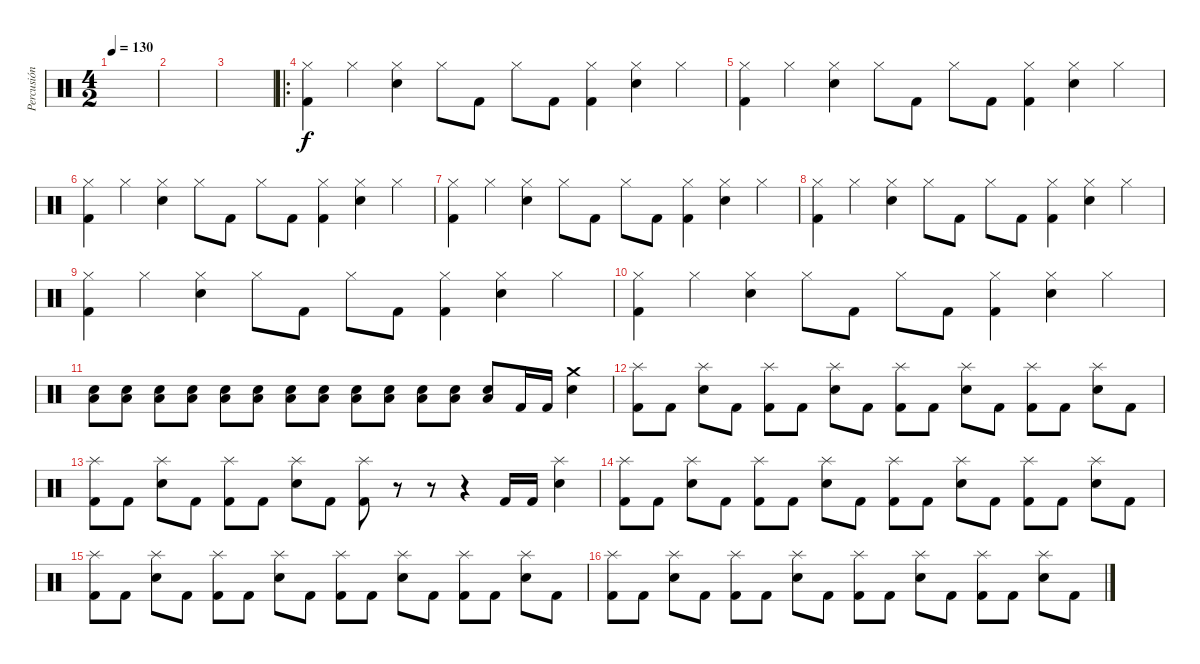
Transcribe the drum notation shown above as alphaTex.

\track ("Percusión" "Percusión") {instrument percussion}
\staff {score}
\articulation defaults
\ts (4 2)
\tempo 130
\clef neutral
\ks c
|
|
|
\ro
("Hi-Hat (closed)" "Kick (hit) 2").4 "Hi-Hat (closed)".4 ("Hi-Hat (closed)" "Snare (hit) 2").4 "Hi-Hat (closed)".8 "Kick (hit) 2".8 "Hi-Hat (closed)".8 "Kick (hit) 2".8 ("Hi-Hat (closed)" "Kick (hit) 2").4 ("Hi-Hat (closed)" "Snare (hit) 2").4 "Hi-Hat (closed)".4 |
("Hi-Hat (closed)" "Kick (hit) 2").4 "Hi-Hat (closed)".4 ("Hi-Hat (closed)" "Snare (hit) 2").4 "Hi-Hat (closed)".8 "Kick (hit) 2".8 "Hi-Hat (closed)".8 "Kick (hit) 2".8 ("Hi-Hat (closed)" "Kick (hit) 2").4 ("Hi-Hat (closed)" "Snare (hit) 2").4 "Hi-Hat (closed)".4 |
("Hi-Hat (closed)" "Kick (hit) 2").4 "Hi-Hat (closed)".4 ("Hi-Hat (closed)" "Snare (hit) 2").4 "Hi-Hat (closed)".8 "Kick (hit) 2".8 "Hi-Hat (closed)".8 "Kick (hit) 2".8 ("Hi-Hat (closed)" "Kick (hit) 2").4 ("Hi-Hat (closed)" "Snare (hit) 2").4 "Hi-Hat (closed)".4 |
("Hi-Hat (closed)" "Kick (hit) 2").4 "Hi-Hat (closed)".4 ("Hi-Hat (closed)" "Snare (hit) 2").4 "Hi-Hat (closed)".8 "Kick (hit) 2".8 "Hi-Hat (closed)".8 "Kick (hit) 2".8 ("Hi-Hat (closed)" "Kick (hit) 2").4 ("Hi-Hat (closed)" "Snare (hit) 2").4 "Hi-Hat (closed)".4 |
("Hi-Hat (closed)" "Kick (hit) 2").4 "Hi-Hat (closed)".4 ("Hi-Hat (closed)" "Snare (hit) 2").4 "Hi-Hat (closed)".8 "Kick (hit) 2".8 "Hi-Hat (closed)".8 "Kick (hit) 2".8 ("Hi-Hat (closed)" "Kick (hit) 2").4 ("Hi-Hat (closed)" "Snare (hit) 2").4 "Hi-Hat (closed)".4 |
("Hi-Hat (closed)" "Kick (hit) 2").4 "Hi-Hat (closed)".4 ("Hi-Hat (closed)" "Snare (hit) 2").4 "Hi-Hat (closed)".8 "Kick (hit) 2".8 "Hi-Hat (closed)".8 "Kick (hit) 2".8 ("Hi-Hat (closed)" "Kick (hit) 2").4 ("Hi-Hat (closed)" "Snare (hit) 2").4 "Hi-Hat (closed)".4 |
("Hi-Hat (closed)" "Kick (hit) 2").4 "Hi-Hat (closed)".4 ("Hi-Hat (closed)" "Snare (hit) 2").4 "Hi-Hat (closed)".8 "Kick (hit) 2".8 "Hi-Hat (closed)".8 "Kick (hit) 2".8 ("Hi-Hat (closed)" "Kick (hit) 2").4 ("Hi-Hat (closed)" "Snare (hit) 2").4 "Hi-Hat (closed)".4 |
("Low Floor Tom (hit)" "Snare (hit) 2").8 ("Low Floor Tom (hit)" "Snare (hit) 2").8 ("Low Floor Tom (hit)" "Snare (hit) 2").8 ("Low Floor Tom (hit)" "Snare (hit) 2").8 ("Low Floor Tom (hit)" "Snare (hit) 2").8 ("Low Floor Tom (hit)" "Snare (hit) 2").8 ("Low Floor Tom (hit)" "Snare (hit) 2").8 ("Low Floor Tom (hit)" "Snare (hit) 2").8 ("Low Floor Tom (hit)" "Snare (hit) 2").8 ("Low Floor Tom (hit)" "Snare (hit) 2").8 ("Low Floor Tom (hit)" "Snare (hit) 2").8 ("Low Floor Tom (hit)" "Snare (hit) 2").8 ("Low Floor Tom (hit)" "Snare (hit) 2").8 "Kick (hit) 2".16 "Kick (hit) 2".16 ("Crash medium (hit)" "Snare (hit) 2").4 |
("Splash (hit)" "Kick (hit) 2").8 "Kick (hit) 2".8 ("Splash (hit)" "Snare (hit) 2").8 "Kick (hit) 2".8 ("Splash (hit)" "Kick (hit) 2").8 "Kick (hit) 2".8 ("Splash (hit)" "Snare (hit) 2").8 "Kick (hit) 2".8 ("Splash (hit)" "Kick (hit) 2").8 "Kick (hit) 2".8 ("Splash (hit)" "Snare (hit) 2").8 "Kick (hit) 2".8 ("Splash (hit)" "Kick (hit) 2").8 "Kick (hit) 2".8 ("Splash (hit)" "Snare (hit) 2").8 "Kick (hit) 2".8 |
("Splash (hit)" "Kick (hit) 2").8 "Kick (hit) 2".8 ("Splash (hit)" "Snare (hit) 2").8 "Kick (hit) 2".8 ("Splash (hit)" "Kick (hit) 2").8 "Kick (hit) 2".8 ("Splash (hit)" "Snare (hit) 2").8 "Kick (hit) 2".8 ("Splash (hit)" "Kick (hit) 2").8 r.8 r.8 r.4 "Kick (hit) 2".16 "Kick (hit) 2".16 ("Splash (hit)" "Snare (hit) 2").4 |
("Splash (hit)" "Kick (hit) 2").8 "Kick (hit) 2".8 ("Splash (hit)" "Snare (hit) 2").8 "Kick (hit) 2".8 ("Splash (hit)" "Kick (hit) 2").8 "Kick (hit) 2".8 ("Splash (hit)" "Snare (hit) 2").8 "Kick (hit) 2".8 ("Splash (hit)" "Kick (hit) 2").8 "Kick (hit) 2".8 ("Splash (hit)" "Snare (hit) 2").8 "Kick (hit) 2".8 ("Splash (hit)" "Kick (hit) 2").8 "Kick (hit) 2".8 ("Splash (hit)" "Snare (hit) 2").8 "Kick (hit) 2".8 |
("Splash (hit)" "Kick (hit) 2").8 "Kick (hit) 2".8 ("Splash (hit)" "Snare (hit) 2").8 "Kick (hit) 2".8 ("Splash (hit)" "Kick (hit) 2").8 "Kick (hit) 2".8 ("Splash (hit)" "Snare (hit) 2").8 "Kick (hit) 2".8 ("Splash (hit)" "Kick (hit) 2").8 "Kick (hit) 2".8 ("Splash (hit)" "Snare (hit) 2").8 "Kick (hit) 2".8 ("Splash (hit)" "Kick (hit) 2").8 "Kick (hit) 2".8 ("Splash (hit)" "Snare (hit) 2").8 "Kick (hit) 2".8 |
("Splash (hit)" "Kick (hit) 2").8 "Kick (hit) 2".8 ("Splash (hit)" "Snare (hit) 2").8 "Kick (hit) 2".8 ("Splash (hit)" "Kick (hit) 2").8 "Kick (hit) 2".8 ("Splash (hit)" "Snare (hit) 2").8 "Kick (hit) 2".8 ("Splash (hit)" "Kick (hit) 2").8 "Kick (hit) 2".8 ("Splash (hit)" "Snare (hit) 2").8 "Kick (hit) 2".8 ("Splash (hit)" "Kick (hit) 2").8 "Kick (hit) 2".8 ("Splash (hit)" "Snare (hit) 2").8 "Kick (hit) 2".8
